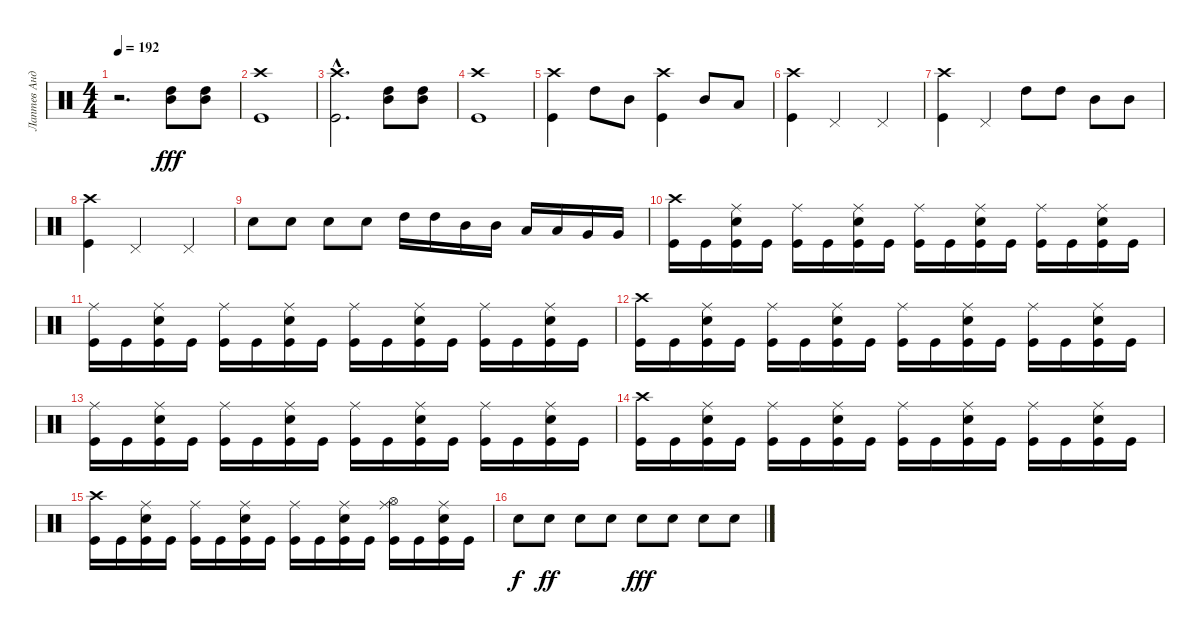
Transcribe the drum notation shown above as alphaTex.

\track ("Лаптев Андрей" "Лаптев Анд") {instrument percussion}
\staff {score}
\articulation defaults
\ts (4 4)
\tempo 192
\clef neutral
\ks c
r.2{d dy fff} ("Mid Tom (hit)" "High Tom (hit)").8 ("Mid Tom (hit)" "High Tom (hit)").8 |
("Crash high (hit)" "Kick (hit)").1 |
("Crash high (hit)"{hac} "Kick (hit)"{hac}).2{d} ("Mid Tom (hit)" "High Tom (hit)").8 ("Mid Tom (hit)" "High Tom (hit)").8 |
("Crash high (hit)" "Kick (hit)").1 |
("Crash high (hit)" "Kick (hit)").4 "High Tom (hit)".8 "Mid Tom (hit)".8 ("Crash high (hit)" "Kick (hit)").4 "Mid Tom (hit)".8 "Low Tom (hit)".8 |
("Crash high (hit)" "Kick (hit)").4 "Pedal Hi-Hat (hit)".2 "Pedal Hi-Hat (hit)".4 |
("Crash high (hit)" "Kick (hit)").4 "Pedal Hi-Hat (hit)".4 "High Tom (hit)".8 "High Tom (hit)".8 "Mid Tom (hit)".8 "Mid Tom (hit)".8 |
("Crash high (hit)" "Kick (hit)").4 "Pedal Hi-Hat (hit)".2 "Pedal Hi-Hat (hit)".4 |
"Electric Snare (hit)".8 "Electric Snare (hit)".8 "Electric Snare (hit)".8 "Electric Snare (hit)".8 "High Tom (hit)".16 "High Tom (hit)".16 "Mid Tom (hit)".16 "Mid Tom (hit)".16 "Low Tom (hit)".16 "Low Tom (hit)".16 "Very Low Tom (hit)".16 "Very Low Tom (hit)".16 |
("Crash high (hit)" "Kick (hit)").16 "Kick (hit)".16 ("Ride (middle)" "Electric Snare (hit)" "Kick (hit)").16 "Kick (hit)".16 ("Ride (middle)" "Kick (hit)").16 "Kick (hit)".16 ("Ride (middle)" "Electric Snare (hit)" "Kick (hit)").16 "Kick (hit)".16 ("Ride (middle)" "Kick (hit)").16 "Kick (hit)".16 ("Ride (middle)" "Electric Snare (hit)" "Kick (hit)").16 "Kick (hit)".16 ("Ride (middle)" "Kick (hit)").16 "Kick (hit)".16 ("Ride (middle)" "Electric Snare (hit)" "Kick (hit)").16 "Kick (hit)".16 |
("Ride (middle)" "Kick (hit)").16 "Kick (hit)".16 ("Electric Snare (hit)" "Kick (hit)" "Ride (middle)").16 "Kick (hit)".16 ("Kick (hit)" "Ride (middle)").16 "Kick (hit)".16 ("Electric Snare (hit)" "Kick (hit)" "Ride (middle)").16 "Kick (hit)".16 ("Kick (hit)" "Ride (middle)").16 "Kick (hit)".16 ("Electric Snare (hit)" "Kick (hit)" "Ride (middle)").16 "Kick (hit)".16 ("Kick (hit)" "Ride (middle)").16 "Kick (hit)".16 ("Electric Snare (hit)" "Kick (hit)" "Ride (middle)").16 "Kick (hit)".16 |
("Crash high (hit)" "Kick (hit)").16 "Kick (hit)".16 ("Electric Snare (hit)" "Kick (hit)" "Ride (middle)").16 "Kick (hit)".16 ("Kick (hit)" "Ride (middle)").16 "Kick (hit)".16 ("Electric Snare (hit)" "Kick (hit)" "Ride (middle)").16 "Kick (hit)".16 ("Kick (hit)" "Ride (middle)").16 "Kick (hit)".16 ("Electric Snare (hit)" "Kick (hit)" "Ride (middle)").16 "Kick (hit)".16 ("Kick (hit)" "Ride (middle)").16 "Kick (hit)".16 ("Electric Snare (hit)" "Kick (hit)" "Ride (middle)").16 "Kick (hit)".16 |
("Ride (middle)" "Kick (hit)").16 "Kick (hit)".16 ("Electric Snare (hit)" "Kick (hit)" "Ride (middle)").16 "Kick (hit)".16 ("Kick (hit)" "Ride (middle)").16 "Kick (hit)".16 ("Electric Snare (hit)" "Kick (hit)" "Ride (middle)").16 "Kick (hit)".16 ("Kick (hit)" "Ride (middle)").16 "Kick (hit)".16 ("Electric Snare (hit)" "Kick (hit)" "Ride (middle)").16 "Kick (hit)".16 ("Kick (hit)" "Ride (middle)").16 "Kick (hit)".16 ("Electric Snare (hit)" "Kick (hit)" "Ride (middle)").16 "Kick (hit)".16 |
("Crash high (hit)" "Kick (hit)").16 "Kick (hit)".16 ("Electric Snare (hit)" "Kick (hit)" "Ride (middle)").16 "Kick (hit)".16 ("Kick (hit)" "Ride (middle)").16 "Kick (hit)".16 ("Electric Snare (hit)" "Kick (hit)" "Ride (middle)").16 "Kick (hit)".16 ("Kick (hit)" "Ride (middle)").16 "Kick (hit)".16 ("Electric Snare (hit)" "Kick (hit)" "Ride (middle)").16 "Kick (hit)".16 ("Kick (hit)" "Ride (middle)").16 "Kick (hit)".16 ("Electric Snare (hit)" "Kick (hit)" "Ride (middle)").16 "Kick (hit)".16 |
("Crash high (hit)" "Kick (hit)").16 "Kick (hit)".16 ("Electric Snare (hit)" "Kick (hit)" "Ride (middle)").16 "Kick (hit)".16 ("Kick (hit)" "Ride (middle)").16 "Kick (hit)".16 ("Electric Snare (hit)" "Kick (hit)" "Ride (middle)").16 "Kick (hit)".16 ("Kick (hit)" "Ride (middle)").16 "Kick (hit)".16 ("Electric Snare (hit)" "Kick (hit)" "Ride (middle)").16 "Kick (hit)".16 ("Hi-Hat (open)" "Kick (hit)" "Ride (middle)").16 "Kick (hit)".16 ("Electric Snare (hit)" "Kick (hit)" "Ride (middle)").16 "Kick (hit)".16 |
"Electric Snare (hit)".8{dy f} "Electric Snare (hit)".8{dy ff} "Electric Snare (hit)".8 "Electric Snare (hit)".8 "Electric Snare (hit)".8{dy fff} "Electric Snare (hit)".8 "Electric Snare (hit)".8 "Electric Snare (hit)".8
